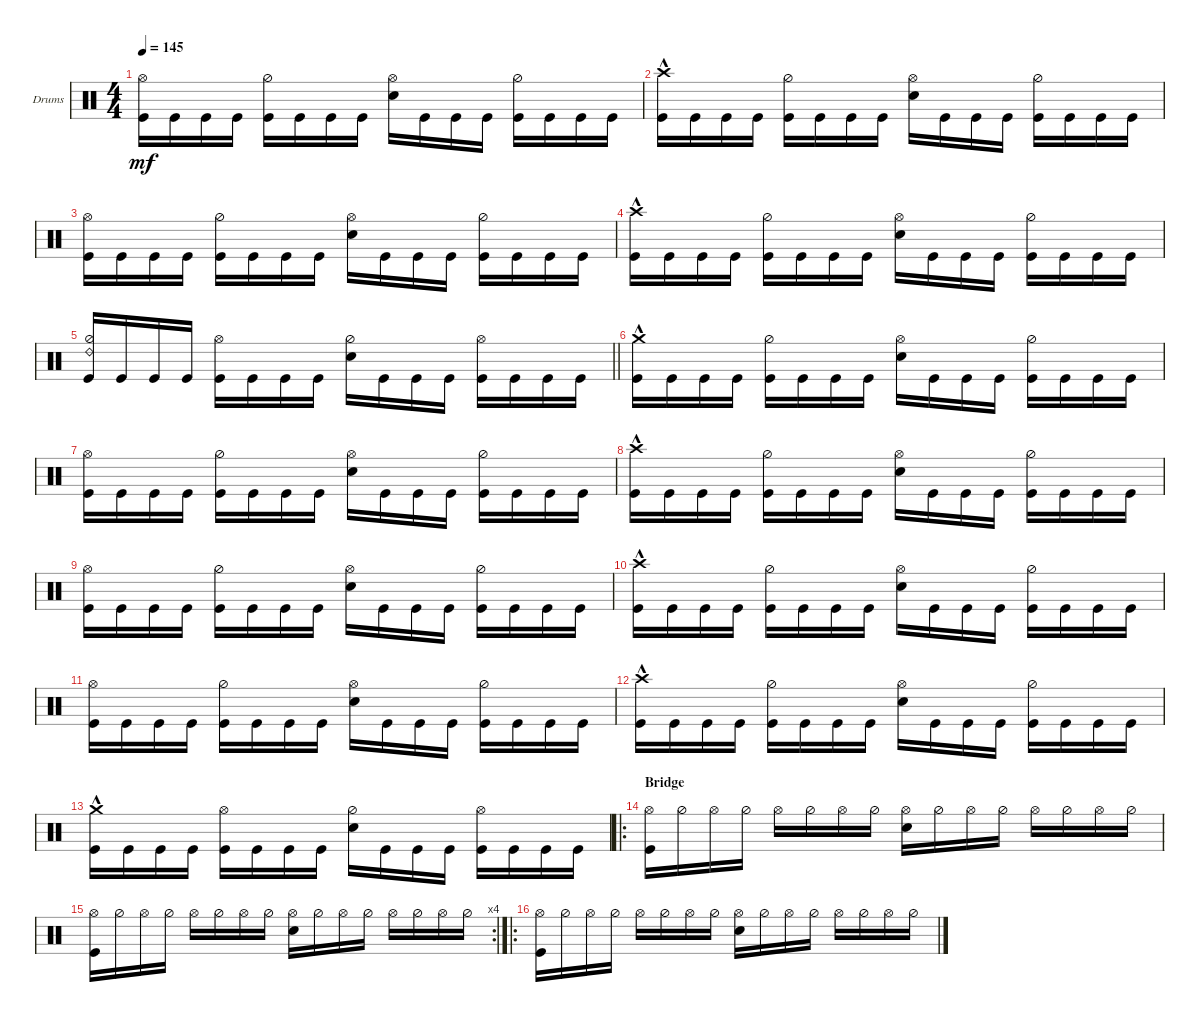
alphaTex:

\defaultSystemsLayout 4
\bracketExtendMode groupsimilarinstruments
\firstSystemTrackNameOrientation horizontal
\otherSystemsTrackNameOrientation horizontal
\track ("Drumkit" "Drums") {instrument percussion}
\staff {score}
\articulation defaults
\ts (4 4)
\tempo 145
\clef neutral
\ks c
("Kick (hit)" "Hi-Hat (open)").16{dy mf} "Kick (hit)".16 "Kick (hit)".16 "Kick (hit)".16 ("Kick (hit)" "Hi-Hat (half)").16 "Kick (hit)".16 "Kick (hit)".16 "Kick (hit)".16 ("Snare (hit) 2" "Hi-Hat (open)").16 "Kick (hit)".16 "Kick (hit)".16 "Kick (hit)".16 ("Kick (hit)" "Hi-Hat (half)").16 "Kick (hit)".16 "Kick (hit)".16 "Kick (hit)".16 |
("Kick (hit)" "Crash high (hit)"{hac}).16 "Kick (hit)".16 "Kick (hit)".16 "Kick (hit)".16 ("Kick (hit)" "Hi-Hat (half)").16 "Kick (hit)".16 "Kick (hit)".16 "Kick (hit)".16 ("Snare (hit) 2" "Hi-Hat (open)").16 "Kick (hit)".16 "Kick (hit)".16 "Kick (hit)".16 ("Kick (hit)" "Hi-Hat (half)").16 "Kick (hit)".16 "Kick (hit)".16 "Kick (hit)".16 |
("Kick (hit)" "Hi-Hat (open)").16 "Kick (hit)".16 "Kick (hit)".16 "Kick (hit)".16 ("Kick (hit)" "Hi-Hat (half)").16 "Kick (hit)".16 "Kick (hit)".16 "Kick (hit)".16 ("Snare (hit) 2" "Hi-Hat (open)").16 "Kick (hit)".16 "Kick (hit)".16 "Kick (hit)".16 ("Kick (hit)" "Hi-Hat (half)").16 "Kick (hit)".16 "Kick (hit)".16 "Kick (hit)".16 |
("Kick (hit)" "Crash high (hit)"{hac}).16 "Kick (hit)".16 "Kick (hit)".16 "Kick (hit)".16 ("Kick (hit)" "Hi-Hat (half)").16 "Kick (hit)".16 "Kick (hit)".16 "Kick (hit)".16 ("Snare (hit) 2" "Hi-Hat (open)").16 "Kick (hit)".16 "Kick (hit)".16 "Kick (hit)".16 ("Kick (hit)" "Hi-Hat (half)").16 "Kick (hit)".16 "Kick (hit)".16 "Kick (hit)".16 |
\barLineRight lightlight
("Kick (hit)" "Ride (bell) 2" "Hi-Hat (half)").16 "Kick (hit)".16 "Kick (hit)".16 "Kick (hit)".16 ("Kick (hit)" "Hi-Hat (open)").16 "Kick (hit)".16 "Kick (hit)".16 "Kick (hit)".16 ("Snare (hit) 2" "Hi-Hat (half)").16 "Kick (hit)".16 "Kick (hit)".16 "Kick (hit)".16 ("Kick (hit)" "Hi-Hat (open)").16 "Kick (hit)".16 "Kick (hit)".16 "Kick (hit)".16 |
("Kick (hit)" "Crash medium (hit)"{hac}).16 "Kick (hit)".16 "Kick (hit)".16 "Kick (hit)".16 ("Kick (hit)" "Hi-Hat (half)").16 "Kick (hit)".16 "Kick (hit)".16 "Kick (hit)".16 ("Snare (hit) 2" "Hi-Hat (open)").16 "Kick (hit)".16 "Kick (hit)".16 "Kick (hit)".16 ("Kick (hit)" "Hi-Hat (half)").16 "Kick (hit)".16 "Kick (hit)".16 "Kick (hit)".16 |
("Kick (hit)" "Hi-Hat (open)").16 "Kick (hit)".16 "Kick (hit)".16 "Kick (hit)".16 ("Kick (hit)" "Hi-Hat (half)").16 "Kick (hit)".16 "Kick (hit)".16 "Kick (hit)".16 ("Snare (hit) 2" "Hi-Hat (open)").16 "Kick (hit)".16 "Kick (hit)".16 "Kick (hit)".16 ("Kick (hit)" "Hi-Hat (half)").16 "Kick (hit)".16 "Kick (hit)".16 "Kick (hit)".16 |
("Kick (hit)" "Crash high (hit)"{hac}).16 "Kick (hit)".16 "Kick (hit)".16 "Kick (hit)".16 ("Kick (hit)" "Hi-Hat (half)").16 "Kick (hit)".16 "Kick (hit)".16 "Kick (hit)".16 ("Snare (hit) 2" "Hi-Hat (open)").16 "Kick (hit)".16 "Kick (hit)".16 "Kick (hit)".16 ("Kick (hit)" "Hi-Hat (half)").16 "Kick (hit)".16 "Kick (hit)".16 "Kick (hit)".16 |
("Kick (hit)" "Hi-Hat (open)").16 "Kick (hit)".16 "Kick (hit)".16 "Kick (hit)".16 ("Kick (hit)" "Hi-Hat (half)").16 "Kick (hit)".16 "Kick (hit)".16 "Kick (hit)".16 ("Snare (hit) 2" "Hi-Hat (open)").16 "Kick (hit)".16 "Kick (hit)".16 "Kick (hit)".16 ("Kick (hit)" "Hi-Hat (half)").16 "Kick (hit)".16 "Kick (hit)".16 "Kick (hit)".16 |
("Kick (hit)" "Crash high (hit)"{hac}).16 "Kick (hit)".16 "Kick (hit)".16 "Kick (hit)".16 ("Kick (hit)" "Hi-Hat (half)").16 "Kick (hit)".16 "Kick (hit)".16 "Kick (hit)".16 ("Snare (hit) 2" "Hi-Hat (open)").16 "Kick (hit)".16 "Kick (hit)".16 "Kick (hit)".16 ("Kick (hit)" "Hi-Hat (half)").16 "Kick (hit)".16 "Kick (hit)".16 "Kick (hit)".16 |
("Kick (hit)" "Hi-Hat (open)").16 "Kick (hit)".16 "Kick (hit)".16 "Kick (hit)".16 ("Kick (hit)" "Hi-Hat (half)").16 "Kick (hit)".16 "Kick (hit)".16 "Kick (hit)".16 ("Snare (hit) 2" "Hi-Hat (open)").16 "Kick (hit)".16 "Kick (hit)".16 "Kick (hit)".16 ("Kick (hit)" "Hi-Hat (half)").16 "Kick (hit)".16 "Kick (hit)".16 "Kick (hit)".16 |
("Kick (hit)" "Crash high (hit)"{hac}).16 "Kick (hit)".16 "Kick (hit)".16 "Kick (hit)".16 ("Kick (hit)" "Hi-Hat (half)").16 "Kick (hit)".16 "Kick (hit)".16 "Kick (hit)".16 ("Snare (hit) 2" "Hi-Hat (open)").16 "Kick (hit)".16 "Kick (hit)".16 "Kick (hit)".16 ("Kick (hit)" "Hi-Hat (half)").16 "Kick (hit)".16 "Kick (hit)".16 "Kick (hit)".16 |
("Kick (hit)" "Crash medium (hit)"{hac}).16 "Kick (hit)".16 "Kick (hit)".16 "Kick (hit)".16 ("Kick (hit)" "Hi-Hat (open)").16 "Kick (hit)".16 "Kick (hit)".16 "Kick (hit)".16 ("Snare (hit) 2" "Hi-Hat (half)").16 "Kick (hit)".16 "Kick (hit)".16 "Kick (hit)".16 ("Kick (hit)" "Hi-Hat (open)").16 "Kick (hit)".16 "Kick (hit)".16 "Kick (hit)".16 |
\ro
\section ("" "Bridge")
("Kick (hit)" "Hi-Hat (open)").16 "Hi-Hat (half)".16 "Hi-Hat (open)".16 "Hi-Hat (half)".16 "Hi-Hat (open)".16 "Hi-Hat (half)".16 "Hi-Hat (open)".16 "Hi-Hat (half)".16 ("Snare (hit) 2" "Hi-Hat (open)").16 "Hi-Hat (half)".16 "Hi-Hat (open)".16 "Hi-Hat (half)".16 "Hi-Hat (open)".16 "Hi-Hat (half)".16 "Hi-Hat (open)".16 "Hi-Hat (half)".16 |
\rc 4
("Kick (hit)" "Hi-Hat (open)").16 "Hi-Hat (half)".16 "Hi-Hat (open)".16 "Hi-Hat (half)".16 "Hi-Hat (open)".16 "Hi-Hat (half)".16 "Hi-Hat (open)".16 "Hi-Hat (half)".16 ("Snare (hit) 2" "Hi-Hat (open)").16 "Hi-Hat (half)".16 "Hi-Hat (open)".16 "Hi-Hat (half)".16 "Hi-Hat (open)".16 "Hi-Hat (half)".16 "Hi-Hat (open)".16 "Hi-Hat (half)".16 |
\ro
("Kick (hit)" "Hi-Hat (open)").16 "Hi-Hat (half)".16 "Hi-Hat (open)".16 "Hi-Hat (half)".16 "Hi-Hat (open)".16 "Hi-Hat (half)".16 "Hi-Hat (open)".16 "Hi-Hat (half)".16 ("Snare (hit) 2" "Hi-Hat (open)").16 "Hi-Hat (half)".16 "Hi-Hat (open)".16 "Hi-Hat (half)".16 "Hi-Hat (open)".16 "Hi-Hat (half)".16 "Hi-Hat (open)".16 "Hi-Hat (half)".16
